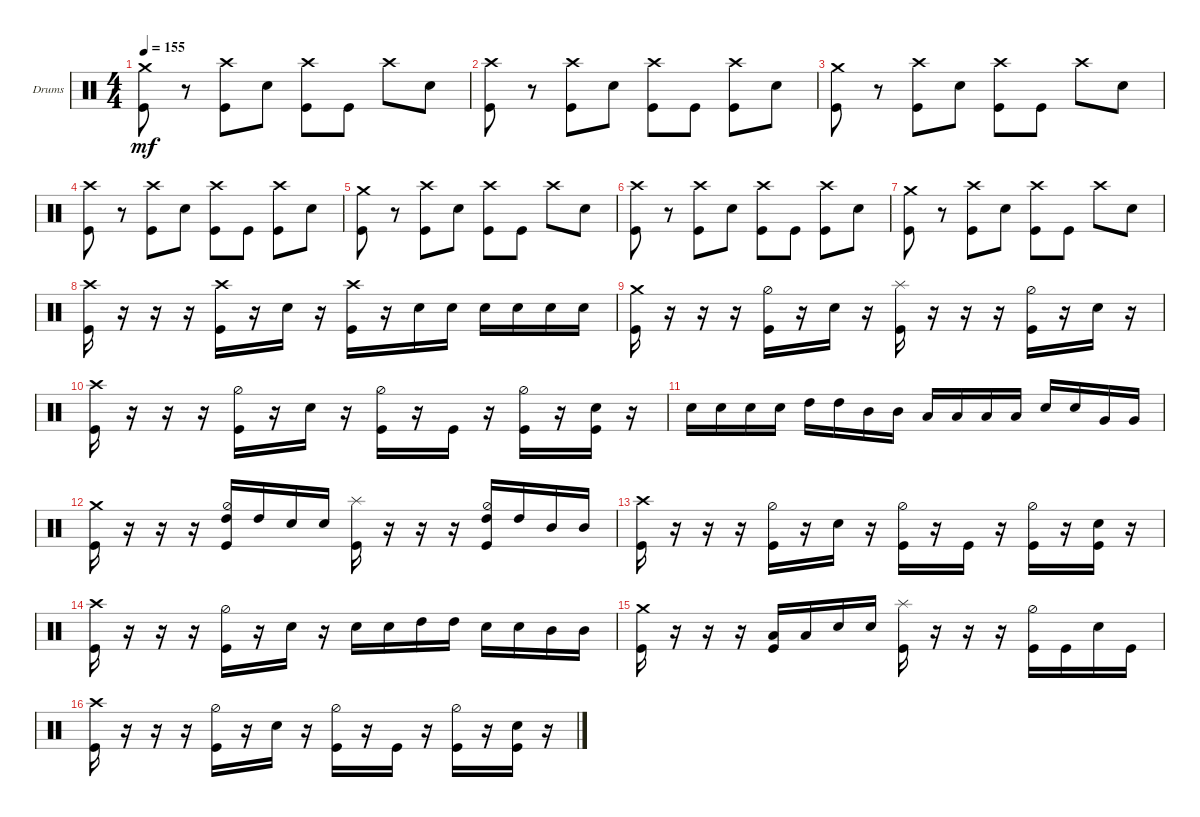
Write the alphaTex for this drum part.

\defaultSystemsLayout 4
\bracketExtendMode groupsimilarinstruments
\firstSystemTrackNameOrientation horizontal
\otherSystemsTrackNameOrientation horizontal
\track ("Drumkit" "Drums") {instrument percussion}
\staff {score}
\articulation defaults
\ts (4 4)
\tempo 155
\clef neutral
\ks c
("Kick (hit)" "Crash medium (hit)").8{dy mf} r.8 ("Kick (hit)" "Crash high (hit)").8 "Snare (hit) 2".8 ("Kick (hit)" "Crash high (hit)").8 "Kick (hit)".8 "Crash high (hit)".8 "Snare (hit) 2".8 |
("Kick (hit)" "Crash high (hit)").8 r.8 ("Kick (hit)" "Crash high (hit)").8 "Snare (hit) 2".8 ("Kick (hit)" "Crash high (hit)").8 "Kick (hit)".8 ("Kick (hit)" "Crash high (hit)").8 "Snare (hit) 2".8 |
("Kick (hit)" "Crash medium (hit)").8 r.8 ("Kick (hit)" "Crash high (hit)").8 "Snare (hit) 2".8 ("Kick (hit)" "Crash high (hit)").8 "Kick (hit)".8 "Crash high (hit)".8 "Snare (hit) 2".8 |
("Kick (hit)" "Crash high (hit)").8 r.8 ("Kick (hit)" "Crash high (hit)").8 "Snare (hit) 2".8 ("Kick (hit)" "Crash high (hit)").8 "Kick (hit)".8 ("Kick (hit)" "Crash high (hit)").8 "Snare (hit) 2".8 |
("Kick (hit)" "Crash medium (hit)").8 r.8 ("Kick (hit)" "Crash high (hit)").8 "Snare (hit) 2".8 ("Kick (hit)" "Crash high (hit)").8 "Kick (hit)".8 "Crash high (hit)".8 "Snare (hit) 2".8 |
("Kick (hit)" "Crash high (hit)").8 r.8 ("Kick (hit)" "Crash high (hit)").8 "Snare (hit) 2".8 ("Kick (hit)" "Crash high (hit)").8 "Kick (hit)".8 ("Kick (hit)" "Crash high (hit)").8 "Snare (hit) 2".8 |
("Kick (hit)" "Crash medium (hit)").8 r.8 ("Kick (hit)" "Crash high (hit)").8 "Snare (hit) 2".8 ("Kick (hit)" "Crash high (hit)").8 "Kick (hit)".8 "Crash high (hit)".8 "Snare (hit) 2".8 |
("Kick (hit)" "Crash high (hit)").16 r.16 r.16 r.16 ("Kick (hit)" "Crash high (hit)").16 r.16 "Snare (hit) 2".16 r.16 ("Kick (hit)" "Crash high (hit)").16 r.16 "Snare (hit) 2".16 "Snare (hit) 2".16 "Snare (hit) 2".16 "Snare (hit) 2".16 "Snare (hit) 2".16 "Snare (hit) 2".16 |
("Kick (hit)" "Crash medium (hit)").16 r.16 r.16 r.16 ("Kick (hit)" "Hi-Hat (half)").16 r.16 "Snare (hit) 2".16 r.16 ("Splash (hit)" "Kick (hit)").16 r.16 r.16 r.16 ("Kick (hit)" "Hi-Hat (half)").16 r.16 "Snare (hit) 2".16 r.16 |
("Kick (hit)" "Crash high (hit)").16 r.16 r.16 r.16 ("Kick (hit)" "Hi-Hat (half)").16 r.16 "Snare (hit) 2".16 r.16 ("Kick (hit)" "Hi-Hat (half)").16 r.16 "Kick (hit)".16 r.16 ("Kick (hit)" "Hi-Hat (half)").16 r.16 ("Kick (hit)" "Snare (hit) 2").16 r.16 |
"Snare (hit) 2".16 "Snare (hit) 2".16 "Snare (hit) 2".16 "Snare (hit) 2".16 "High Tom (hit)".16 "High Tom (hit)".16 "Mid Tom (hit)".16 "Mid Tom (hit)".16 "Low Tom (hit)".16 "Low Tom (hit)".16 "Low Tom (hit)".16 "Low Tom (hit)".16 "Snare (hit) 2".16 "Snare (hit) 2".16 "Very Low Tom (hit)".16 "Very Low Tom (hit)".16 |
("Kick (hit)" "Crash medium (hit)").16 r.16 r.16 r.16 ("Kick (hit)" "Hi-Hat (half)" "High Tom (hit)").16 "High Tom (hit)".16 "Snare (hit) 2".16 "Snare (hit) 2".16 ("Splash (hit)" "Kick (hit)").16 r.16 r.16 r.16 ("Kick (hit)" "Hi-Hat (half)" "High Tom (hit)").16 "High Tom (hit)".16 "Mid Tom (hit)".16 "Mid Tom (hit)".16 |
("Kick (hit)" "Crash high (hit)").16 r.16 r.16 r.16 ("Kick (hit)" "Hi-Hat (half)").16 r.16 "Snare (hit) 2".16 r.16 ("Kick (hit)" "Hi-Hat (half)").16 r.16 "Kick (hit)".16 r.16 ("Kick (hit)" "Hi-Hat (half)").16 r.16 ("Kick (hit)" "Snare (hit) 2").16 r.16 |
("Kick (hit)" "Crash high (hit)").16 r.16 r.16 r.16 ("Kick (hit)" "Hi-Hat (half)").16 r.16 "Snare (hit) 2".16 r.16 "Snare (hit) 2".16 "Snare (hit) 2".16 "High Tom (hit)".16 "High Tom (hit)".16 "Snare (hit) 2".16 "Snare (hit) 2".16 "Mid Tom (hit)".16 "Mid Tom (hit)".16 |
("Kick (hit)" "Crash medium (hit)").16 r.16 r.16 r.16 ("Kick (hit)" "Low Tom (hit)").16 "Low Tom (hit)".16 "Snare (hit) 2".16 "Snare (hit) 2".16 ("Splash (hit)" "Kick (hit)").16 r.16 r.16 r.16 ("Kick (hit)" "Hi-Hat (half)").16 "Kick (hit)".16 "Snare (hit) 2".16 "Kick (hit)".16 |
("Kick (hit)" "Crash high (hit)").16 r.16 r.16 r.16 ("Kick (hit)" "Hi-Hat (half)").16 r.16 "Snare (hit) 2".16 r.16 ("Kick (hit)" "Hi-Hat (half)").16 r.16 "Kick (hit)".16 r.16 ("Kick (hit)" "Hi-Hat (half)").16 r.16 ("Kick (hit)" "Snare (hit) 2").16 r.16
